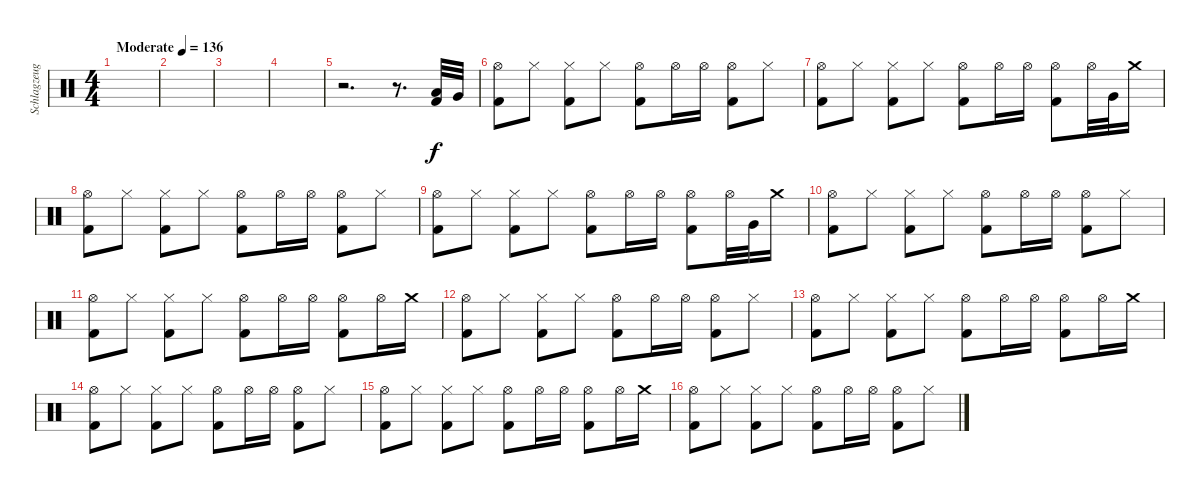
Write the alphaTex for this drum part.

\track ("Schlagzeug - der Hund Marie" "Schlagzeug") {instrument percussion}
\staff {score}
\articulation defaults
\ts (4 4)
\tempo (136 "Moderate")
\clef neutral
\ks c
|
|
|
|
r.2{d} r.8{d} ("Low Floor Tom (hit)" "Kick (hit) 2").32 "Very Low Tom (hit)".32 |
("Hi-Hat (open)" "Kick (hit) 2").8 "Hi-Hat (closed)".8 ("Hi-Hat (closed)" "Kick (hit) 2").8 "Hi-Hat (closed)".8 ("Hi-Hat (open)" "Kick (hit) 2").8 "Hi-Hat (open)".16 "Hi-Hat (open)".16 ("Hi-Hat (open)" "Kick (hit) 2").8 "Hi-Hat (closed)".8 |
("Hi-Hat (open)" "Kick (hit) 2").8 "Hi-Hat (closed)".8 ("Hi-Hat (closed)" "Kick (hit) 2").8 "Hi-Hat (closed)".8 ("Hi-Hat (open)" "Kick (hit) 2").8 "Hi-Hat (open)".16 "Hi-Hat (open)".16 ("Hi-Hat (open)" "Kick (hit) 2").8 "Hi-Hat (open)".32 "Very Low Tom (hit)".32 "Crash medium (hit)".16 |
("Hi-Hat (open)" "Kick (hit) 2").8 "Hi-Hat (closed)".8 ("Hi-Hat (closed)" "Kick (hit) 2").8 "Hi-Hat (closed)".8 ("Hi-Hat (open)" "Kick (hit) 2").8 "Hi-Hat (open)".16 "Hi-Hat (open)".16 ("Hi-Hat (open)" "Kick (hit) 2").8 "Hi-Hat (closed)".8 |
("Hi-Hat (open)" "Kick (hit) 2").8 "Hi-Hat (closed)".8 ("Hi-Hat (closed)" "Kick (hit) 2").8 "Hi-Hat (closed)".8 ("Hi-Hat (open)" "Kick (hit) 2").8 "Hi-Hat (open)".16 "Hi-Hat (open)".16 ("Hi-Hat (open)" "Kick (hit) 2").8 "Hi-Hat (open)".32 "Very Low Tom (hit)".32 "Crash medium (hit)".16 |
("Hi-Hat (open)" "Kick (hit) 2").8 "Hi-Hat (closed)".8 ("Hi-Hat (closed)" "Kick (hit) 2").8 "Hi-Hat (closed)".8 ("Hi-Hat (open)" "Kick (hit) 2").8 "Hi-Hat (open)".16 "Hi-Hat (open)".16 ("Hi-Hat (open)" "Kick (hit) 2").8 "Hi-Hat (closed)".8 |
("Hi-Hat (open)" "Kick (hit) 2").8 "Hi-Hat (closed)".8 ("Hi-Hat (closed)" "Kick (hit) 2").8 "Hi-Hat (closed)".8 ("Hi-Hat (open)" "Kick (hit) 2").8 "Hi-Hat (open)".16 "Hi-Hat (open)".16 ("Hi-Hat (open)" "Kick (hit) 2").8 "Hi-Hat (open)".16 "Crash medium (hit)".16 |
("Hi-Hat (open)" "Kick (hit) 2").8 "Hi-Hat (closed)".8 ("Hi-Hat (closed)" "Kick (hit) 2").8 "Hi-Hat (closed)".8 ("Hi-Hat (open)" "Kick (hit) 2").8 "Hi-Hat (open)".16 "Hi-Hat (open)".16 ("Hi-Hat (open)" "Kick (hit) 2").8 "Hi-Hat (closed)".8 |
("Hi-Hat (open)" "Kick (hit) 2").8 "Hi-Hat (closed)".8 ("Hi-Hat (closed)" "Kick (hit) 2").8 "Hi-Hat (closed)".8 ("Hi-Hat (open)" "Kick (hit) 2").8 "Hi-Hat (open)".16 "Hi-Hat (open)".16 ("Hi-Hat (open)" "Kick (hit) 2").8 "Hi-Hat (open)".16 "Crash medium (hit)".16 |
("Hi-Hat (open)" "Kick (hit) 2").8 "Hi-Hat (closed)".8 ("Hi-Hat (closed)" "Kick (hit) 2").8 "Hi-Hat (closed)".8 ("Hi-Hat (open)" "Kick (hit) 2").8 "Hi-Hat (open)".16 "Hi-Hat (open)".16 ("Hi-Hat (open)" "Kick (hit) 2").8 "Hi-Hat (closed)".8 |
("Hi-Hat (open)" "Kick (hit) 2").8 "Hi-Hat (closed)".8 ("Hi-Hat (closed)" "Kick (hit) 2").8 "Hi-Hat (closed)".8 ("Hi-Hat (open)" "Kick (hit) 2").8 "Hi-Hat (open)".16 "Hi-Hat (open)".16 ("Hi-Hat (open)" "Kick (hit) 2").8 "Hi-Hat (open)".16 "Crash medium (hit)".16 |
("Hi-Hat (open)" "Kick (hit) 2").8 "Hi-Hat (closed)".8 ("Hi-Hat (closed)" "Kick (hit) 2").8 "Hi-Hat (closed)".8 ("Hi-Hat (open)" "Kick (hit) 2").8 "Hi-Hat (open)".16 "Hi-Hat (open)".16 ("Hi-Hat (open)" "Kick (hit) 2").8 "Hi-Hat (closed)".8
